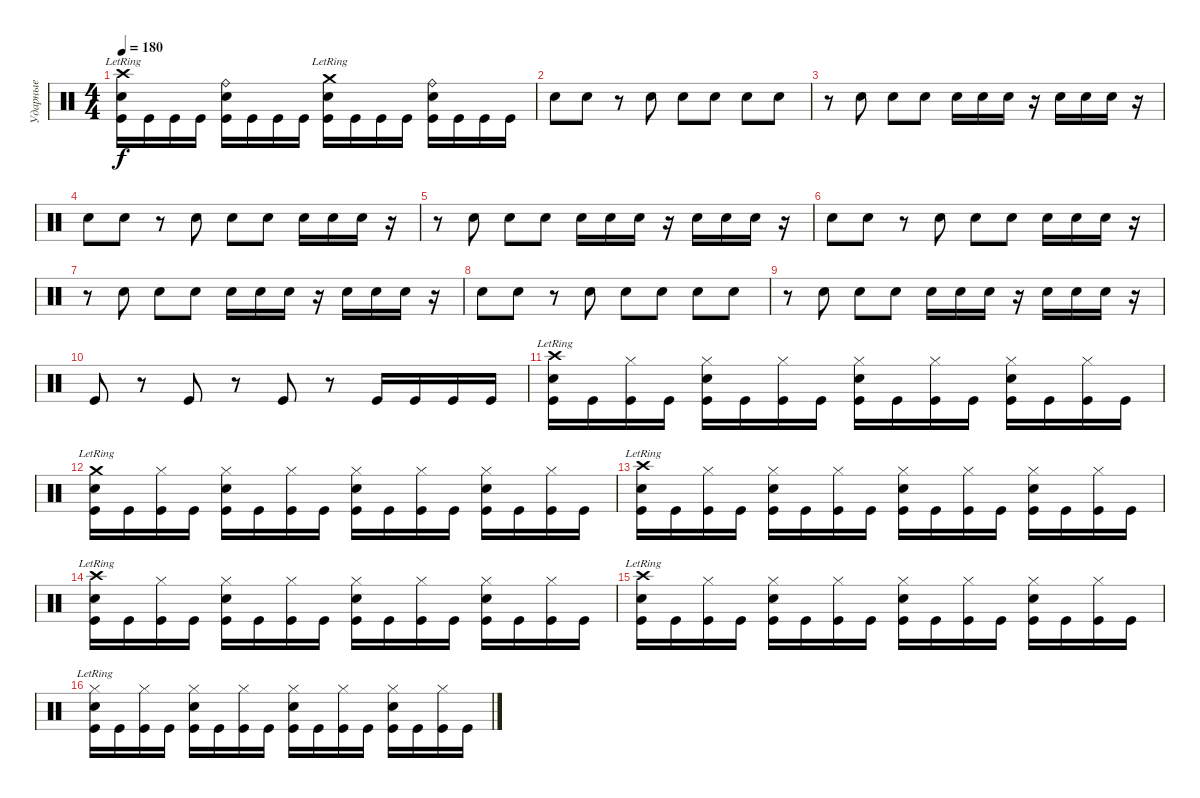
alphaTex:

\track ("Ударные" "Ударные") {instrument percussion}
\staff {score}
\articulation defaults
\ts (4 4)
\tempo 180
\clef neutral
\ks c
("Crash high (hit)"{lr} "Electric Snare (hit)" "Kick (hit)").16{dy f} "Kick (hit)".16 "Kick (hit)".16 "Kick (hit)".16 ("Ride (bell)" "Electric Snare (hit)" "Kick (hit)").16 "Kick (hit)".16 "Kick (hit)".16 "Kick (hit)".16 ("Crash medium (hit)"{lr} "Electric Snare (hit)" "Kick (hit)").16 "Kick (hit)".16 "Kick (hit)".16 "Kick (hit)".16 ("Ride (bell)" "Electric Snare (hit)" "Kick (hit)").16 "Kick (hit)".16 "Kick (hit)".16 "Kick (hit)".16 |
"Electric Snare (hit)".8 "Electric Snare (hit)".8 r.8 "Electric Snare (hit)".8 "Electric Snare (hit)".8 "Electric Snare (hit)".8 "Electric Snare (hit)".8 "Electric Snare (hit)".8 |
r.8 "Electric Snare (hit)".8 "Electric Snare (hit)".8 "Electric Snare (hit)".8 "Electric Snare (hit)".16 "Electric Snare (hit)".16 "Electric Snare (hit)".16 r.16 "Electric Snare (hit)".16 "Electric Snare (hit)".16 "Electric Snare (hit)".16 r.16 |
"Electric Snare (hit)".8 "Electric Snare (hit)".8 r.8 "Electric Snare (hit)".8 "Electric Snare (hit)".8 "Electric Snare (hit)".8 "Electric Snare (hit)".16 "Electric Snare (hit)".16 "Electric Snare (hit)".16 r.16 |
r.8 "Electric Snare (hit)".8 "Electric Snare (hit)".8 "Electric Snare (hit)".8 "Electric Snare (hit)".16 "Electric Snare (hit)".16 "Electric Snare (hit)".16 r.16 "Electric Snare (hit)".16 "Electric Snare (hit)".16 "Electric Snare (hit)".16 r.16 |
"Electric Snare (hit)".8 "Electric Snare (hit)".8 r.8 "Electric Snare (hit)".8 "Electric Snare (hit)".8 "Electric Snare (hit)".8 "Electric Snare (hit)".16 "Electric Snare (hit)".16 "Electric Snare (hit)".16 r.16 |
r.8 "Electric Snare (hit)".8 "Electric Snare (hit)".8 "Electric Snare (hit)".8 "Electric Snare (hit)".16 "Electric Snare (hit)".16 "Electric Snare (hit)".16 r.16 "Electric Snare (hit)".16 "Electric Snare (hit)".16 "Electric Snare (hit)".16 r.16 |
"Electric Snare (hit)".8 "Electric Snare (hit)".8 r.8 "Electric Snare (hit)".8 "Electric Snare (hit)".8 "Electric Snare (hit)".8 "Electric Snare (hit)".8 "Electric Snare (hit)".8 |
r.8 "Electric Snare (hit)".8 "Electric Snare (hit)".8 "Electric Snare (hit)".8 "Electric Snare (hit)".16 "Electric Snare (hit)".16 "Electric Snare (hit)".16 r.16 "Electric Snare (hit)".16 "Electric Snare (hit)".16 "Electric Snare (hit)".16 r.16 |
"Kick (hit)".8 r.8 "Kick (hit)".8 r.8 "Kick (hit)".8 r.8 "Kick (hit)".16 "Kick (hit)".16 "Kick (hit)".16 "Kick (hit)".16 |
("Crash high (hit)"{lr} "Electric Snare (hit)" "Kick (hit)").16 "Kick (hit)".16 ("Hi-Hat (closed)" "Kick (hit)").16 "Kick (hit)".16 ("Hi-Hat (closed)" "Electric Snare (hit)" "Kick (hit)").16 "Kick (hit)".16 ("Hi-Hat (closed)" "Kick (hit)").16 "Kick (hit)".16 ("Hi-Hat (closed)" "Electric Snare (hit)" "Kick (hit)").16 "Kick (hit)".16 ("Hi-Hat (closed)" "Kick (hit)").16 "Kick (hit)".16 ("Hi-Hat (closed)" "Electric Snare (hit)" "Kick (hit)").16 "Kick (hit)".16 ("Hi-Hat (closed)" "Kick (hit)").16 "Kick (hit)".16 |
("Crash medium (hit)"{lr} "Electric Snare (hit)" "Kick (hit)").16 "Kick (hit)".16 ("Hi-Hat (closed)" "Kick (hit)").16 "Kick (hit)".16 ("Hi-Hat (closed)" "Electric Snare (hit)" "Kick (hit)").16 "Kick (hit)".16 ("Hi-Hat (closed)" "Kick (hit)").16 "Kick (hit)".16 ("Hi-Hat (closed)" "Electric Snare (hit)" "Kick (hit)").16 "Kick (hit)".16 ("Hi-Hat (closed)" "Kick (hit)").16 "Kick (hit)".16 ("Hi-Hat (closed)" "Electric Snare (hit)" "Kick (hit)").16 "Kick (hit)".16 ("Hi-Hat (closed)" "Kick (hit)").16 "Kick (hit)".16 |
("Crash high (hit)"{lr} "Electric Snare (hit)" "Kick (hit)").16 "Kick (hit)".16 ("Hi-Hat (closed)" "Kick (hit)").16 "Kick (hit)".16 ("Hi-Hat (closed)" "Electric Snare (hit)" "Kick (hit)").16 "Kick (hit)".16 ("Hi-Hat (closed)" "Kick (hit)").16 "Kick (hit)".16 ("Hi-Hat (closed)" "Electric Snare (hit)" "Kick (hit)").16 "Kick (hit)".16 ("Hi-Hat (closed)" "Kick (hit)").16 "Kick (hit)".16 ("Hi-Hat (closed)" "Electric Snare (hit)" "Kick (hit)").16 "Kick (hit)".16 ("Hi-Hat (closed)" "Kick (hit)").16 "Kick (hit)".16 |
("Crash high (hit)"{lr} "Electric Snare (hit)" "Kick (hit)").16 "Kick (hit)".16 ("Hi-Hat (closed)" "Kick (hit)").16 "Kick (hit)".16 ("Hi-Hat (closed)" "Electric Snare (hit)" "Kick (hit)").16 "Kick (hit)".16 ("Hi-Hat (closed)" "Kick (hit)").16 "Kick (hit)".16 ("Hi-Hat (closed)" "Electric Snare (hit)" "Kick (hit)").16 "Kick (hit)".16 ("Hi-Hat (closed)" "Kick (hit)").16 "Kick (hit)".16 ("Hi-Hat (closed)" "Electric Snare (hit)" "Kick (hit)").16 "Kick (hit)".16 ("Hi-Hat (closed)" "Kick (hit)").16 "Kick (hit)".16 |
("Crash high (hit)"{lr} "Electric Snare (hit)" "Kick (hit)").16 "Kick (hit)".16 ("Hi-Hat (closed)" "Kick (hit)").16 "Kick (hit)".16 ("Hi-Hat (closed)" "Electric Snare (hit)" "Kick (hit)").16 "Kick (hit)".16 ("Hi-Hat (closed)" "Kick (hit)").16 "Kick (hit)".16 ("Hi-Hat (closed)" "Electric Snare (hit)" "Kick (hit)").16 "Kick (hit)".16 ("Hi-Hat (closed)" "Kick (hit)").16 "Kick (hit)".16 ("Hi-Hat (closed)" "Electric Snare (hit)" "Kick (hit)").16 "Kick (hit)".16 ("Hi-Hat (closed)" "Kick (hit)").16 "Kick (hit)".16 |
("Hi-Hat (closed)"{lr} "Electric Snare (hit)" "Kick (hit)").16 "Kick (hit)".16 ("Hi-Hat (closed)" "Kick (hit)").16 "Kick (hit)".16 ("Hi-Hat (closed)" "Electric Snare (hit)" "Kick (hit)").16 "Kick (hit)".16 ("Hi-Hat (closed)" "Kick (hit)").16 "Kick (hit)".16 ("Hi-Hat (closed)" "Electric Snare (hit)" "Kick (hit)").16 "Kick (hit)".16 ("Hi-Hat (closed)" "Kick (hit)").16 "Kick (hit)".16 ("Hi-Hat (closed)" "Electric Snare (hit)" "Kick (hit)").16 "Kick (hit)".16 ("Hi-Hat (closed)" "Kick (hit)").16 "Kick (hit)".16
